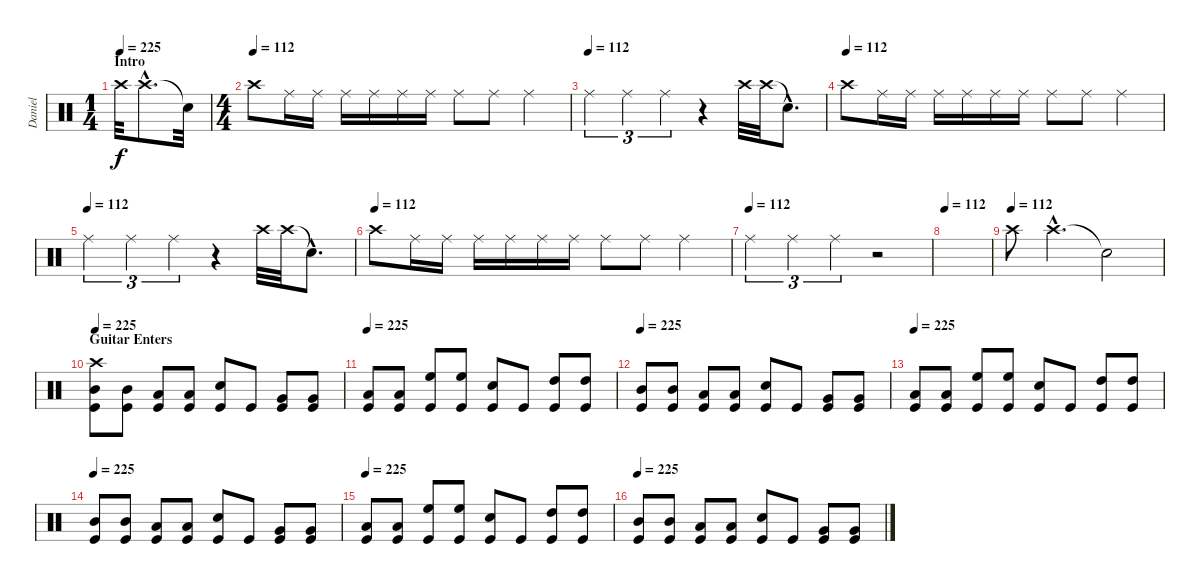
\track ("Daniel" "Daniel") {instrument percussion}
\staff {score}
\articulation defaults
\ts (1 4)
\section ("" "Intro")
\tempo 225
\tempo 112
\tempo 225
\clef neutral
\ks c "Crash high (hit)".32{dy f volume 0} "Crash high (hit)"{hac}.8{d volume 16} "Snare (hit)"{t}.32
|
\ts (4 4)
\tempo (112)
"Crash high (hit)".8 "Ride (middle)".16 "Ride (middle)".16 "Ride (middle)".16 "Ride (middle)".16 "Ride (middle)".16 "Ride (middle)".16 "Ride (middle)".8 "Ride (middle)".8 "Ride (middle)".4 |
\tempo (112)
"Ride (middle)".4{tu (3 2)} "Ride (middle)".4{tu (3 2)} "Ride (middle)".4{tu (3 2)} r.4 "Crash high (hit)".32{volume 0} "Crash high (hit)".32{volume 16} "Snare (hit)"{hac t}.8{d} |
\tempo (112)
"Crash high (hit)".8 "Ride (middle)".16 "Ride (middle)".16 "Ride (middle)".16 "Ride (middle)".16 "Ride (middle)".16 "Ride (middle)".16 "Ride (middle)".8 "Ride (middle)".8 "Ride (middle)".4 |
\tempo (112)
"Ride (middle)".4{tu (3 2)} "Ride (middle)".4{tu (3 2)} "Ride (middle)".4{tu (3 2)} r.4 "Crash high (hit)".32{volume 0} "Crash high (hit)".32{volume 16} "Snare (hit)"{hac t}.8{d} |
\tempo (112)
"Crash high (hit)".8 "Ride (middle)".16 "Ride (middle)".16 "Ride (middle)".16 "Ride (middle)".16 "Ride (middle)".16 "Ride (middle)".16 "Ride (middle)".8 "Ride (middle)".8 "Ride (middle)".4 |
\tempo (112)
"Ride (middle)".4{tu (3 2)} "Ride (middle)".4{tu (3 2)} "Ride (middle)".4{tu (3 2)} r.2 |
\tempo 112
|
\tempo (112)
"Crash high (hit)".8{volume 0} "Crash high (hit)"{hac}.4{d volume 16} "Snare (hit)"{t}.2 |
\section ("" "Guitar Enters")
\tempo 225
("Crash high (hit)" "Mid Tom (hit)" "Kick (hit)").8 ("Mid Tom (hit)" "Kick (hit)").8 ("Low Tom (hit)" "Kick (hit)").8 ("Low Tom (hit)" "Kick (hit)").8 ("Snare (hit) 2" "Kick (hit)").8 "Kick (hit)".8 ("Very Low Tom (hit)" "Kick (hit)").8 ("Very Low Tom (hit)" "Kick (hit)").8 |
\tempo 225
("Low Floor Tom (hit)" "Kick (hit)").8 ("Low Floor Tom (hit)" "Kick (hit)").8 ("High Floor Tom (hit)" "Kick (hit)").8 ("High Floor Tom (hit)" "Kick (hit)").8 ("Snare (hit) 2" "Kick (hit)").8 "Kick (hit)".8 ("High Tom (hit)" "Kick (hit)").8 ("High Tom (hit)" "Kick (hit)").8 |
\tempo 225
("Mid Tom (hit)" "Kick (hit)").8 ("Mid Tom (hit)" "Kick (hit)").8 ("Low Tom (hit)" "Kick (hit)").8 ("Low Tom (hit)" "Kick (hit)").8 ("Snare (hit) 2" "Kick (hit)").8 "Kick (hit)".8 ("Very Low Tom (hit)" "Kick (hit)").8 ("Very Low Tom (hit)" "Kick (hit)").8 |
\tempo 225
("Low Floor Tom (hit)" "Kick (hit)").8 ("Low Floor Tom (hit)" "Kick (hit)").8 ("High Floor Tom (hit)" "Kick (hit)").8 ("High Floor Tom (hit)" "Kick (hit)").8 ("Snare (hit) 2" "Kick (hit)").8 "Kick (hit)".8 ("High Tom (hit)" "Kick (hit)").8 ("High Tom (hit)" "Kick (hit)").8 |
\tempo 225
("Mid Tom (hit)" "Kick (hit)").8 ("Mid Tom (hit)" "Kick (hit)").8 ("Low Tom (hit)" "Kick (hit)").8 ("Low Tom (hit)" "Kick (hit)").8 ("Snare (hit) 2" "Kick (hit)").8 "Kick (hit)".8 ("Very Low Tom (hit)" "Kick (hit)").8 ("Very Low Tom (hit)" "Kick (hit)").8 |
\tempo 225
("Low Floor Tom (hit)" "Kick (hit)").8 ("Low Floor Tom (hit)" "Kick (hit)").8 ("High Floor Tom (hit)" "Kick (hit)").8 ("High Floor Tom (hit)" "Kick (hit)").8 ("Snare (hit) 2" "Kick (hit)").8 "Kick (hit)".8 ("High Tom (hit)" "Kick (hit)").8 ("High Tom (hit)" "Kick (hit)").8 |
\tempo 225
("Mid Tom (hit)" "Kick (hit)").8 ("Mid Tom (hit)" "Kick (hit)").8 ("Low Tom (hit)" "Kick (hit)").8 ("Low Tom (hit)" "Kick (hit)").8 ("Snare (hit) 2" "Kick (hit)").8 "Kick (hit)".8 ("Very Low Tom (hit)" "Kick (hit)").8 ("Very Low Tom (hit)" "Kick (hit)").8
